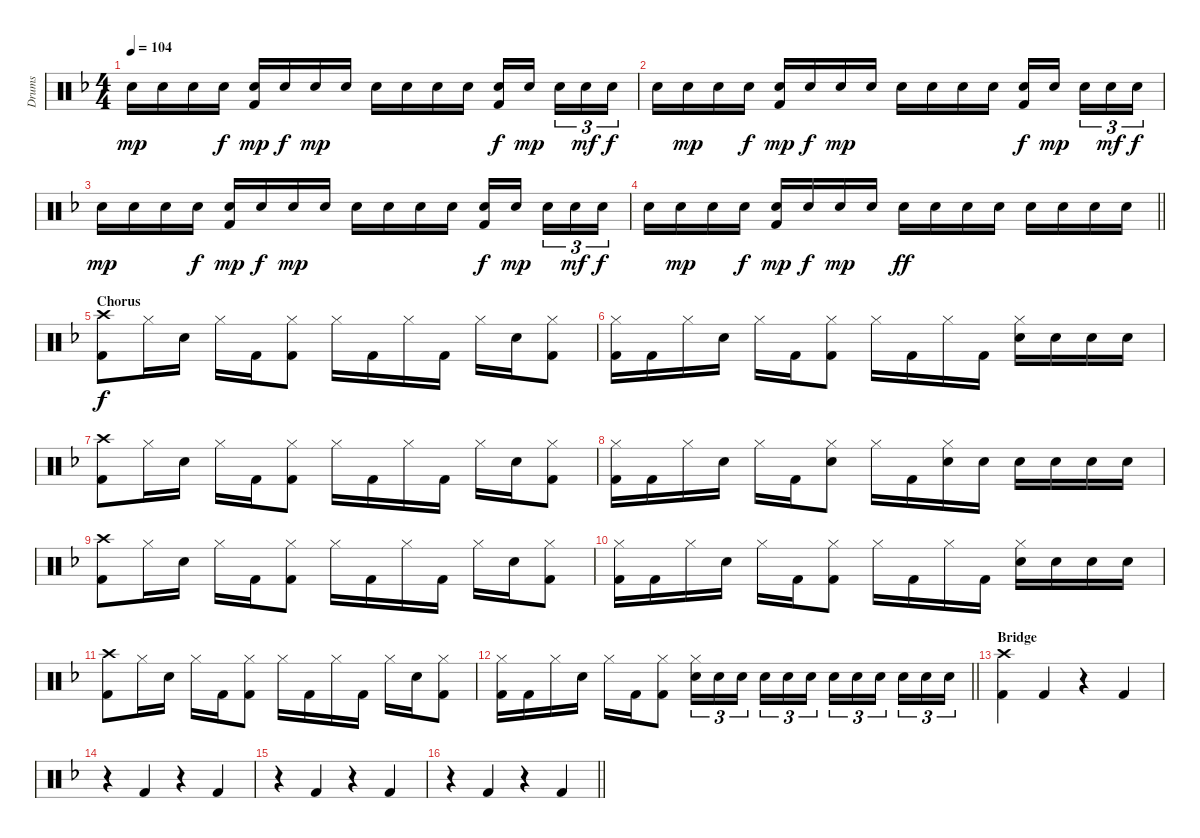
\track ("Drums" "Drums") {instrument percussion}
\staff {score}
\articulation defaults
\ts (4 4)
\tempo 104
\clef neutral
\ks dminor "Snare (hit) 2".16{dy mp} "Snare (hit) 2".16 "Snare (hit) 2".16 "Snare (hit) 2".16{dy f}
("Snare (hit) 2" "Kick (hit) 2").16{dy mp} "Snare (hit) 2".16{dy f} "Snare (hit) 2".16{dy mp} "Snare (hit) 2".16 "Snare (hit) 2".16 "Snare (hit) 2".16 "Snare (hit) 2".16 "Snare (hit) 2".16 ("Snare (hit) 2" "Kick (hit) 2").16{dy f} "Snare (hit) 2".16{dy mp beam splitsecondary} "Snare (hit) 2".16{tu (3 2)} "Snare (hit) 2".16{tu (3 2) dy mf} "Snare (hit) 2".16{tu (3 2) dy f} |
"Snare (hit) 2".16 "Snare (hit) 2".16{dy mp} "Snare (hit) 2".16 "Snare (hit) 2".16{dy f} ("Snare (hit) 2" "Kick (hit) 2").16{dy mp} "Snare (hit) 2".16{dy f} "Snare (hit) 2".16{dy mp} "Snare (hit) 2".16 "Snare (hit) 2".16 "Snare (hit) 2".16 "Snare (hit) 2".16 "Snare (hit) 2".16 ("Snare (hit) 2" "Kick (hit) 2").16{dy f} "Snare (hit) 2".16{dy mp beam splitsecondary} "Snare (hit) 2".16{tu (3 2)} "Snare (hit) 2".16{tu (3 2) dy mf} "Snare (hit) 2".16{tu (3 2) dy f} |
"Snare (hit) 2".16{dy mp} "Snare (hit) 2".16 "Snare (hit) 2".16 "Snare (hit) 2".16{dy f} ("Snare (hit) 2" "Kick (hit) 2").16{dy mp} "Snare (hit) 2".16{dy f} "Snare (hit) 2".16{dy mp} "Snare (hit) 2".16 "Snare (hit) 2".16 "Snare (hit) 2".16 "Snare (hit) 2".16 "Snare (hit) 2".16 ("Snare (hit) 2" "Kick (hit) 2").16{dy f} "Snare (hit) 2".16{dy mp beam splitsecondary} "Snare (hit) 2".16{tu (3 2)} "Snare (hit) 2".16{tu (3 2) dy mf} "Snare (hit) 2".16{tu (3 2) dy f} |
\barLineRight lightlight "Snare (hit) 2".16 "Snare (hit) 2".16{dy mp} "Snare (hit) 2".16 "Snare (hit) 2".16{dy f}
("Snare (hit) 2" "Kick (hit) 2").16{dy mp} "Snare (hit) 2".16{dy f} "Snare (hit) 2".16{dy mp} "Snare (hit) 2".16 "Snare (hit) 2".16{dy ff} "Snare (hit) 2".16 "Snare (hit) 2".16 "Snare (hit) 2".16 "Snare (hit) 2".16 "Snare (hit) 2".16 "Snare (hit) 2".16 "Snare (hit) 2".16 |
\section ("" "Chorus")
("Crash high (hit)" "Kick (hit) 2").8{dy f} "Hi-Hat (closed)".16 "Snare (hit) 2".16 "Hi-Hat (closed)".16 "Kick (hit) 2".16 ("Hi-Hat (closed)" "Kick (hit) 2").8 "Hi-Hat (closed)".16 "Kick (hit) 2".16 "Hi-Hat (closed)".16 "Kick (hit) 2".16 "Hi-Hat (closed)".16 "Snare (hit) 2".16 ("Hi-Hat (closed)" "Kick (hit) 2").8 |
("Hi-Hat (closed)" "Kick (hit) 2").16 "Kick (hit) 2".16 "Hi-Hat (closed)".16 "Snare (hit) 2".16 "Hi-Hat (closed)".16 "Kick (hit) 2".16 ("Hi-Hat (closed)" "Kick (hit) 2").8 "Hi-Hat (closed)".16 "Kick (hit) 2".16 "Hi-Hat (closed)".16 "Kick (hit) 2".16 ("Hi-Hat (closed)" "Snare (hit) 2").16 "Snare (hit) 2".16 "Snare (hit) 2".16 "Snare (hit) 2".16 |
("Crash high (hit)" "Kick (hit) 2").8 "Hi-Hat (closed)".16 "Snare (hit) 2".16 "Hi-Hat (closed)".16 "Kick (hit) 2".16 ("Hi-Hat (closed)" "Kick (hit) 2").8 "Hi-Hat (closed)".16 "Kick (hit) 2".16 "Hi-Hat (closed)".16 "Kick (hit) 2".16 "Hi-Hat (closed)".16 "Snare (hit) 2".16 ("Hi-Hat (closed)" "Kick (hit) 2").8 |
("Hi-Hat (closed)" "Kick (hit) 2").16 "Kick (hit) 2".16 "Hi-Hat (closed)".16 "Snare (hit) 2".16 "Hi-Hat (closed)".16 "Kick (hit) 2".16 ("Hi-Hat (closed)" "Snare (hit) 2").8 "Hi-Hat (closed)".16 "Kick (hit) 2".16 ("Hi-Hat (closed)" "Snare (hit) 2").16 "Snare (hit) 2".16 "Snare (hit) 2".16 "Snare (hit) 2".16 "Snare (hit) 2".16 "Snare (hit) 2".16 |
("Crash high (hit)" "Kick (hit) 2").8 "Hi-Hat (closed)".16 "Snare (hit) 2".16 "Hi-Hat (closed)".16 "Kick (hit) 2".16 ("Hi-Hat (closed)" "Kick (hit) 2").8 "Hi-Hat (closed)".16 "Kick (hit) 2".16 "Hi-Hat (closed)".16 "Kick (hit) 2".16 "Hi-Hat (closed)".16 "Snare (hit) 2".16 ("Hi-Hat (closed)" "Kick (hit) 2").8 |
("Hi-Hat (closed)" "Kick (hit) 2").16 "Kick (hit) 2".16 "Hi-Hat (closed)".16 "Snare (hit) 2".16 "Hi-Hat (closed)".16 "Kick (hit) 2".16 ("Hi-Hat (closed)" "Kick (hit) 2").8 "Hi-Hat (closed)".16 "Kick (hit) 2".16 "Hi-Hat (closed)".16 "Kick (hit) 2".16 ("Hi-Hat (closed)" "Snare (hit) 2").16 "Snare (hit) 2".16 "Snare (hit) 2".16 "Snare (hit) 2".16 |
("Crash high (hit)" "Kick (hit) 2").8 "Hi-Hat (closed)".16 "Snare (hit) 2".16 "Hi-Hat (closed)".16 "Kick (hit) 2".16 ("Hi-Hat (closed)" "Kick (hit) 2").8 "Hi-Hat (closed)".16 "Kick (hit) 2".16 "Hi-Hat (closed)".16 "Kick (hit) 2".16 "Hi-Hat (closed)".16 "Snare (hit) 2".16 ("Hi-Hat (closed)" "Kick (hit) 2").8 |
\barLineRight lightlight
("Hi-Hat (closed)" "Kick (hit) 2").16 "Kick (hit) 2".16 "Hi-Hat (closed)".16 "Snare (hit) 2".16 "Hi-Hat (closed)".16 "Kick (hit) 2".16 ("Hi-Hat (closed)" "Kick (hit) 2").8 ("Hi-Hat (closed)" "Snare (hit) 2").16{tu (3 2)} "Snare (hit) 2".16{tu (3 2)} "Snare (hit) 2".16{tu (3 2) beam splitsecondary} "Snare (hit) 2".16{tu (3 2)} "Snare (hit) 2".16{tu (3 2)} "Snare (hit) 2".16{tu (3 2)} "Snare (hit) 2".16{tu (3 2)} "Snare (hit) 2".16{tu (3 2)} "Snare (hit) 2".16{tu (3 2) beam splitsecondary} "Snare (hit) 2".16{tu (3 2)} "Snare (hit) 2".16{tu (3 2)} "Snare (hit) 2".16{tu (3 2)} |
\section ("" "Bridge")
("Crash high (hit)" "Kick (hit) 2").4 "Kick (hit) 2".4 r.4 "Kick (hit) 2".4 |
r.4 "Kick (hit) 2".4 r.4 "Kick (hit) 2".4 |
r.4 "Kick (hit) 2".4 r.4 "Kick (hit) 2".4 |
\barLineRight lightlight
r.4 "Kick (hit) 2".4 r.4 "Kick (hit) 2".4
